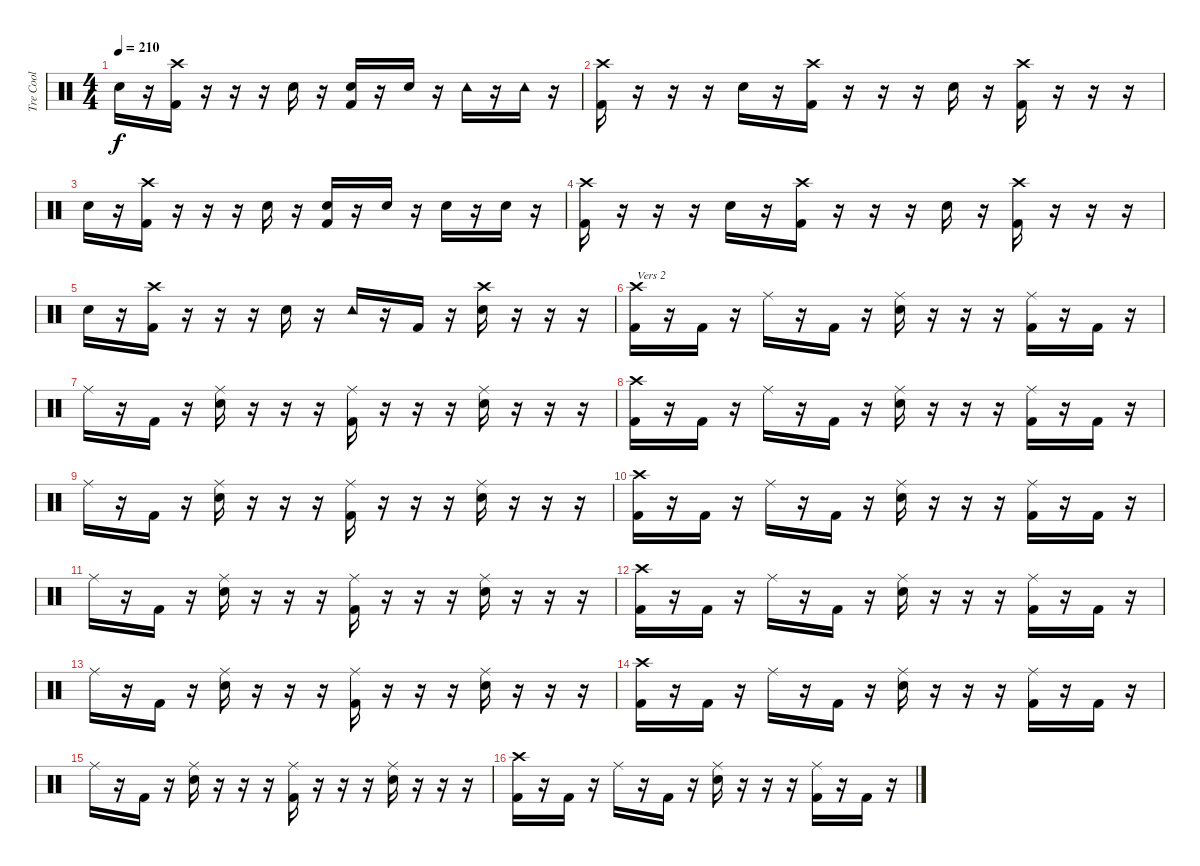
\track ("Tre Cool" "Tre Cool") {instrument percussion}
\staff {score}
\articulation defaults
\ts (4 4)
\tempo 210
\clef neutral
\ks c "Snare (hit) 2".16{dy f}
r.16 ("Crash high (hit)" "Kick (hit) 2").16 r.16 r.16 r.16 "Snare (hit) 2".16 r.16 ("Snare (hit) 2" "Kick (hit) 2").16 r.16 "Snare (hit) 2".16 r.16 "Tambourine (hit)".16 r.16 "Tambourine (hit)".16 r.16 |
("Crash high (hit)" "Kick (hit) 2").16 r.16 r.16 r.16 "Snare (hit) 2".16 r.16 ("Crash high (hit)" "Kick (hit) 2").16 r.16 r.16 r.16 "Snare (hit) 2".16 r.16 ("Crash high (hit)" "Kick (hit) 2").16 r.16 r.16 r.16 |
"Snare (hit) 2".16 r.16 ("Crash high (hit)" "Kick (hit) 2").16 r.16 r.16 r.16 "Snare (hit) 2".16 r.16 ("Snare (hit) 2" "Kick (hit) 2").16 r.16 "Snare (hit) 2".16 r.16 "Snare (hit) 2".16 r.16 "Snare (hit) 2".16 r.16 |
("Crash high (hit)" "Kick (hit) 2").16 r.16 r.16 r.16 "Snare (hit) 2".16 r.16 ("Crash high (hit)" "Kick (hit) 2").16 r.16 r.16 r.16 "Snare (hit) 2".16 r.16 ("Crash high (hit)" "Kick (hit) 2").16 r.16 r.16 r.16 |
"Snare (hit) 2".16 r.16 ("Crash high (hit)" "Kick (hit) 2").16 r.16 r.16 r.16 "Snare (hit) 2".16 r.16 "Tambourine (hit)".16 r.16 "Kick (hit) 2".16 r.16 ("Crash high (hit)" "Snare (hit) 2").16 r.16 r.16 r.16 |
("Crash high (hit)" "Kick (hit) 2").16{txt "Vers 2"} r.16 "Kick (hit) 2".16 r.16 "Ride (middle)".16 r.16 "Kick (hit) 2".16 r.16 ("Ride (middle)" "Snare (hit) 2").16 r.16 r.16 r.16 ("Ride (middle)" "Kick (hit) 2").16 r.16 "Kick (hit) 2".16 r.16 |
"Ride (middle)".16 r.16 "Kick (hit) 2".16 r.16 ("Ride (middle)" "Snare (hit) 2").16 r.16 r.16 r.16 ("Ride (middle)" "Kick (hit) 2").16 r.16 r.16 r.16 ("Ride (middle)" "Snare (hit) 2").16 r.16 r.16 r.16 |
("Crash high (hit)" "Kick (hit) 2").16 r.16 "Kick (hit) 2".16 r.16 "Ride (middle)".16 r.16 "Kick (hit) 2".16 r.16 ("Ride (middle)" "Snare (hit) 2").16 r.16 r.16 r.16 ("Ride (middle)" "Kick (hit) 2").16 r.16 "Kick (hit) 2".16 r.16 |
"Ride (middle)".16 r.16 "Kick (hit) 2".16 r.16 ("Ride (middle)" "Snare (hit) 2").16 r.16 r.16 r.16 ("Ride (middle)" "Kick (hit) 2").16 r.16 r.16 r.16 ("Ride (middle)" "Snare (hit) 2").16 r.16 r.16 r.16 |
("Crash high (hit)" "Kick (hit) 2").16 r.16 "Kick (hit) 2".16 r.16 "Ride (middle)".16 r.16 "Kick (hit) 2".16 r.16 ("Ride (middle)" "Snare (hit) 2").16 r.16 r.16 r.16 ("Ride (middle)" "Kick (hit) 2").16 r.16 "Kick (hit) 2".16 r.16 |
"Ride (middle)".16 r.16 "Kick (hit) 2".16 r.16 ("Ride (middle)" "Snare (hit) 2").16 r.16 r.16 r.16 ("Ride (middle)" "Kick (hit) 2").16 r.16 r.16 r.16 ("Ride (middle)" "Snare (hit) 2").16 r.16 r.16 r.16 |
("Crash high (hit)" "Kick (hit) 2").16 r.16 "Kick (hit) 2".16 r.16 "Ride (middle)".16 r.16 "Kick (hit) 2".16 r.16 ("Ride (middle)" "Snare (hit) 2").16 r.16 r.16 r.16 ("Ride (middle)" "Kick (hit) 2").16 r.16 "Kick (hit) 2".16 r.16 |
"Ride (middle)".16 r.16 "Kick (hit) 2".16 r.16 ("Ride (middle)" "Snare (hit) 2").16 r.16 r.16 r.16 ("Ride (middle)" "Kick (hit) 2").16 r.16 r.16 r.16 ("Ride (middle)" "Snare (hit) 2").16 r.16 r.16 r.16 |
("Crash high (hit)" "Kick (hit) 2").16 r.16 "Kick (hit) 2".16 r.16 "Ride (middle)".16 r.16 "Kick (hit) 2".16 r.16 ("Ride (middle)" "Snare (hit) 2").16 r.16 r.16 r.16 ("Ride (middle)" "Kick (hit) 2").16 r.16 "Kick (hit) 2".16 r.16 |
"Ride (middle)".16 r.16 "Kick (hit) 2".16 r.16 ("Ride (middle)" "Snare (hit) 2").16 r.16 r.16 r.16 ("Ride (middle)" "Kick (hit) 2").16 r.16 r.16 r.16 ("Ride (middle)" "Snare (hit) 2").16 r.16 r.16 r.16 |
("Crash high (hit)" "Kick (hit) 2").16 r.16 "Kick (hit) 2".16 r.16 "Ride (middle)".16 r.16 "Kick (hit) 2".16 r.16 ("Ride (middle)" "Snare (hit) 2").16 r.16 r.16 r.16 ("Ride (middle)" "Kick (hit) 2").16 r.16 "Kick (hit) 2".16 r.16
